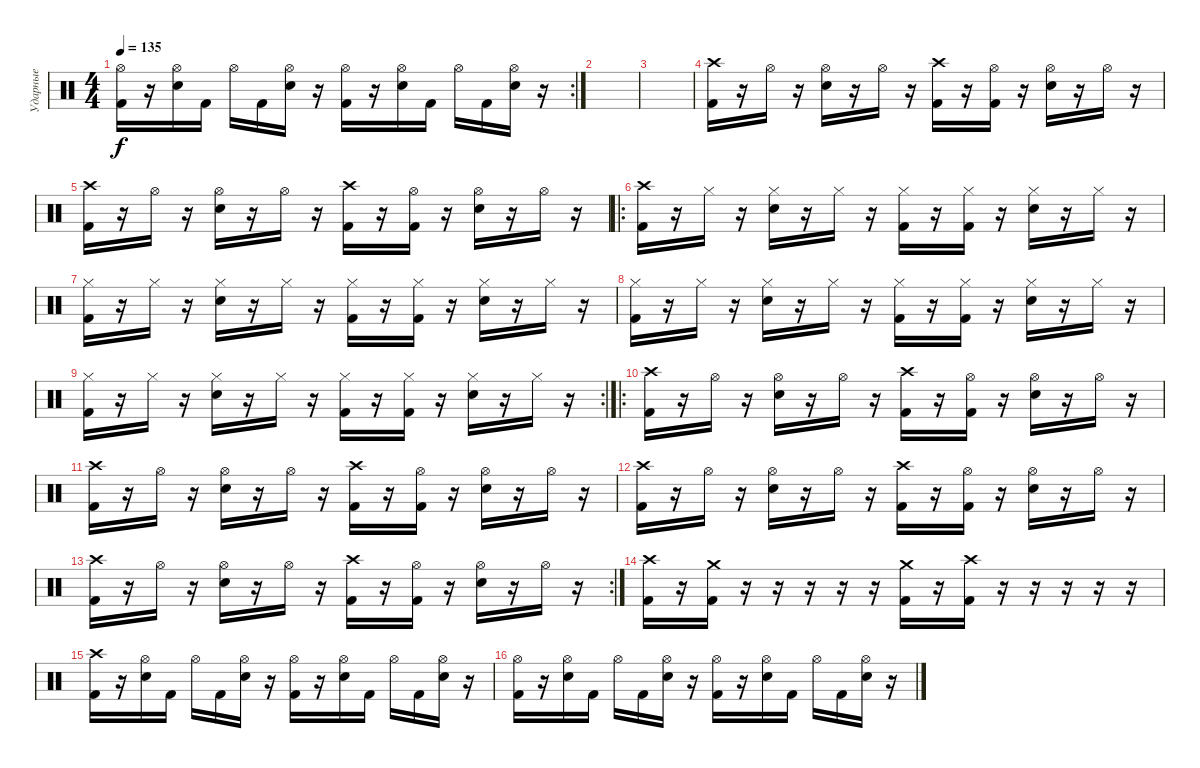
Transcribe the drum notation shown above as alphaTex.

\track ("Ударные" "Ударные") {instrument percussion}
\staff {score}
\articulation defaults
\rc 2
\ts (4 4)
\tempo 135
\clef neutral
\ks c
("Hi-Hat (open)" "Kick (hit) 2").16{dy f} r.16 ("Hi-Hat (open)" "Electric Snare (hit)").16 "Kick (hit) 2".16 "Hi-Hat (open)".16 "Kick (hit) 2".16 ("Hi-Hat (open)" "Electric Snare (hit)").16 r.16 ("Hi-Hat (open)" "Kick (hit) 2").16 r.16 ("Hi-Hat (open)" "Electric Snare (hit)").16 "Kick (hit) 2".16 "Hi-Hat (open)".16 "Kick (hit) 2".16 ("Hi-Hat (open)" "Electric Snare (hit)").16 r.16 |
|
|
("Crash high (hit)" "Kick (hit) 2").16 r.16 "Hi-Hat (open)".16 r.16 ("Hi-Hat (open)" "Electric Snare (hit)").16 r.16 "Hi-Hat (open)".16 r.16 ("Crash high (hit)" "Kick (hit) 2").16 r.16 ("Hi-Hat (open)" "Kick (hit) 2").16 r.16 ("Hi-Hat (open)" "Electric Snare (hit)").16 r.16 "Hi-Hat (open)".16 r.16 |
("Crash high (hit)" "Kick (hit) 2").16 r.16 "Hi-Hat (open)".16 r.16 ("Hi-Hat (open)" "Electric Snare (hit)").16 r.16 "Hi-Hat (open)".16 r.16 ("Crash high (hit)" "Kick (hit) 2").16 r.16 ("Hi-Hat (open)" "Kick (hit) 2").16 r.16 ("Hi-Hat (open)" "Electric Snare (hit)").16 r.16 "Hi-Hat (open)".16 r.16 |
\ro
("Crash high (hit)" "Kick (hit) 2").16 r.16 "Hi-Hat (closed)".16 r.16 ("Hi-Hat (closed)" "Electric Snare (hit)").16 r.16 "Hi-Hat (closed)".16 r.16 ("Hi-Hat (closed)" "Kick (hit) 2").16 r.16 ("Hi-Hat (closed)" "Kick (hit) 2").16 r.16 ("Hi-Hat (closed)" "Electric Snare (hit)").16 r.16 "Hi-Hat (closed)".16 r.16 |
("Hi-Hat (closed)" "Kick (hit) 2").16 r.16 "Hi-Hat (closed)".16 r.16 ("Hi-Hat (closed)" "Electric Snare (hit)").16 r.16 "Hi-Hat (closed)".16 r.16 ("Hi-Hat (closed)" "Kick (hit) 2").16 r.16 ("Hi-Hat (closed)" "Kick (hit) 2").16 r.16 ("Hi-Hat (closed)" "Electric Snare (hit)").16 r.16 "Hi-Hat (closed)".16 r.16 |
("Hi-Hat (closed)" "Kick (hit) 2").16 r.16 "Hi-Hat (closed)".16 r.16 ("Hi-Hat (closed)" "Electric Snare (hit)").16 r.16 "Hi-Hat (closed)".16 r.16 ("Hi-Hat (closed)" "Kick (hit) 2").16 r.16 ("Hi-Hat (closed)" "Kick (hit) 2").16 r.16 ("Hi-Hat (closed)" "Electric Snare (hit)").16 r.16 "Hi-Hat (closed)".16 r.16 |
\rc 2
("Hi-Hat (closed)" "Kick (hit) 2").16 r.16 "Hi-Hat (closed)".16 r.16 ("Hi-Hat (closed)" "Electric Snare (hit)").16 r.16 "Hi-Hat (closed)".16 r.16 ("Hi-Hat (closed)" "Kick (hit) 2").16 r.16 ("Hi-Hat (closed)" "Kick (hit) 2").16 r.16 ("Hi-Hat (closed)" "Electric Snare (hit)").16 r.16 "Hi-Hat (closed)".16 r.16 |
\ro
("Crash high (hit)" "Kick (hit) 2").16 r.16 "Hi-Hat (open)".16 r.16 ("Hi-Hat (open)" "Electric Snare (hit)").16 r.16 "Hi-Hat (open)".16 r.16 ("Crash high (hit)" "Kick (hit) 2").16 r.16 ("Hi-Hat (open)" "Kick (hit) 2").16 r.16 ("Hi-Hat (open)" "Electric Snare (hit)").16 r.16 "Hi-Hat (open)".16 r.16 |
("Crash high (hit)" "Kick (hit) 2").16 r.16 "Hi-Hat (open)".16 r.16 ("Hi-Hat (open)" "Electric Snare (hit)").16 r.16 "Hi-Hat (open)".16 r.16 ("Crash high (hit)" "Kick (hit) 2").16 r.16 ("Hi-Hat (open)" "Kick (hit) 2").16 r.16 ("Hi-Hat (open)" "Electric Snare (hit)").16 r.16 "Hi-Hat (open)".16 r.16 |
("Crash high (hit)" "Kick (hit) 2").16 r.16 "Hi-Hat (open)".16 r.16 ("Hi-Hat (open)" "Electric Snare (hit)").16 r.16 "Hi-Hat (open)".16 r.16 ("Crash high (hit)" "Kick (hit) 2").16 r.16 ("Hi-Hat (open)" "Kick (hit) 2").16 r.16 ("Hi-Hat (open)" "Electric Snare (hit)").16 r.16 "Hi-Hat (open)".16 r.16 |
\rc 2
("Crash high (hit)" "Kick (hit) 2").16 r.16 "Hi-Hat (open)".16 r.16 ("Hi-Hat (open)" "Electric Snare (hit)").16 r.16 "Hi-Hat (open)".16 r.16 ("Crash high (hit)" "Kick (hit) 2").16 r.16 ("Hi-Hat (open)" "Kick (hit) 2").16 r.16 ("Hi-Hat (open)" "Electric Snare (hit)").16 r.16 "Hi-Hat (open)".16 r.16 |
("Crash high (hit)" "Kick (hit) 2").16 r.16 ("Crash medium (hit)" "Kick (hit) 2").16 r.16 r.16 r.16 r.16 r.16 ("Crash medium (hit)" "Kick (hit) 2").16 r.16 ("Crash high (hit)" "Kick (hit) 2").16 r.16 r.16 r.16 r.16 r.16 |
("Crash high (hit)" "Kick (hit) 2").16 r.16 ("Hi-Hat (open)" "Electric Snare (hit)").16 "Kick (hit) 2".16 "Hi-Hat (open)".16 "Kick (hit) 2".16 ("Hi-Hat (open)" "Electric Snare (hit)").16 r.16 ("Hi-Hat (open)" "Kick (hit) 2").16 r.16 ("Hi-Hat (open)" "Electric Snare (hit)").16 "Kick (hit) 2".16 "Hi-Hat (open)".16 "Kick (hit) 2".16 ("Hi-Hat (open)" "Electric Snare (hit)").16 r.16 |
("Hi-Hat (open)" "Kick (hit) 2").16 r.16 ("Hi-Hat (open)" "Electric Snare (hit)").16 "Kick (hit) 2".16 "Hi-Hat (open)".16 "Kick (hit) 2".16 ("Hi-Hat (open)" "Electric Snare (hit)").16 r.16 ("Hi-Hat (open)" "Kick (hit) 2").16 r.16 ("Hi-Hat (open)" "Electric Snare (hit)").16 "Kick (hit) 2".16 "Hi-Hat (open)".16 "Kick (hit) 2".16 ("Hi-Hat (open)" "Electric Snare (hit)").16 r.16
